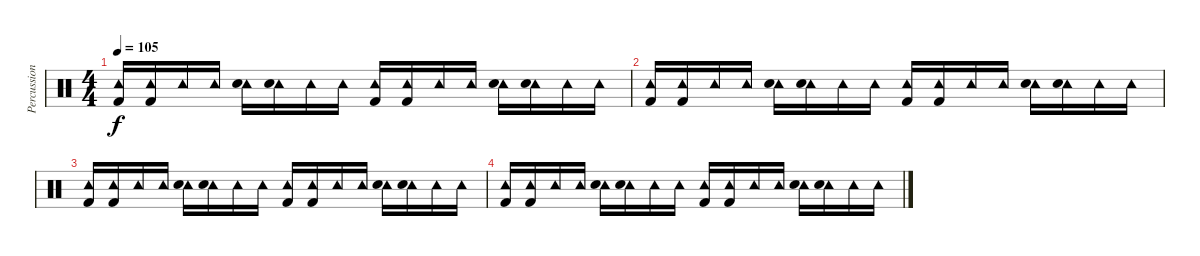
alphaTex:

\track ("Percussions" "Percussion") {instrument percussion}
\staff {score}
\articulation defaults
\ts (4 4)
\tempo 105
\clef neutral
\ks c
("Tambourine (hit)" "Kick (hit) 2").16{dy f} ("Tambourine (hit)" "Kick (hit) 2").16 "Tambourine (hit)".16 "Tambourine (hit)".16 ("Tambourine (hit)" "Electric Snare (hit)").16 ("Tambourine (hit)" "Electric Snare (hit)").16 "Tambourine (hit)".16 "Tambourine (hit)".16 ("Tambourine (hit)" "Kick (hit) 2").16 ("Tambourine (hit)" "Kick (hit) 2").16 "Tambourine (hit)".16 "Tambourine (hit)".16 ("Tambourine (hit)" "Electric Snare (hit)").16 ("Tambourine (hit)" "Electric Snare (hit)").16 "Tambourine (hit)".16 "Tambourine (hit)".16 |
("Tambourine (hit)" "Kick (hit) 2").16 ("Tambourine (hit)" "Kick (hit) 2").16 "Tambourine (hit)".16 "Tambourine (hit)".16 ("Tambourine (hit)" "Electric Snare (hit)").16 ("Tambourine (hit)" "Electric Snare (hit)").16 "Tambourine (hit)".16 "Tambourine (hit)".16 ("Tambourine (hit)" "Kick (hit) 2").16 ("Tambourine (hit)" "Kick (hit) 2").16 "Tambourine (hit)".16 "Tambourine (hit)".16 ("Tambourine (hit)" "Electric Snare (hit)").16 ("Tambourine (hit)" "Electric Snare (hit)").16 "Tambourine (hit)".16 "Tambourine (hit)".16 |
("Tambourine (hit)" "Kick (hit) 2").16 ("Tambourine (hit)" "Kick (hit) 2").16 "Tambourine (hit)".16 "Tambourine (hit)".16 ("Tambourine (hit)" "Electric Snare (hit)").16 ("Tambourine (hit)" "Electric Snare (hit)").16 "Tambourine (hit)".16 "Tambourine (hit)".16 ("Tambourine (hit)" "Kick (hit) 2").16 ("Tambourine (hit)" "Kick (hit) 2").16 "Tambourine (hit)".16 "Tambourine (hit)".16 ("Tambourine (hit)" "Electric Snare (hit)").16 ("Tambourine (hit)" "Electric Snare (hit)").16 "Tambourine (hit)".16 "Tambourine (hit)".16 |
("Tambourine (hit)" "Kick (hit) 2").16 ("Tambourine (hit)" "Kick (hit) 2").16 "Tambourine (hit)".16 "Tambourine (hit)".16 ("Tambourine (hit)" "Electric Snare (hit)").16 ("Tambourine (hit)" "Electric Snare (hit)").16 "Tambourine (hit)".16 "Tambourine (hit)".16 ("Tambourine (hit)" "Kick (hit) 2").16 ("Tambourine (hit)" "Kick (hit) 2").16 "Tambourine (hit)".16 "Tambourine (hit)".16 ("Tambourine (hit)" "Electric Snare (hit)").16 ("Tambourine (hit)" "Electric Snare (hit)").16 "Tambourine (hit)".16 "Tambourine (hit)".16
